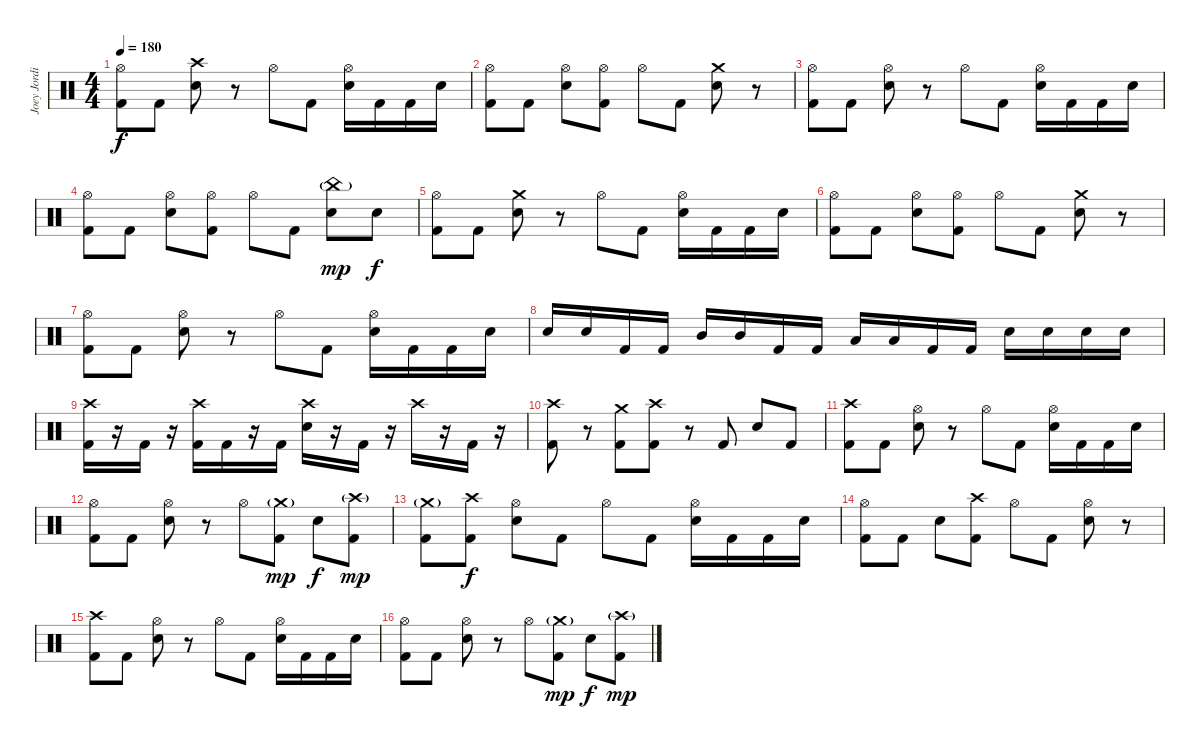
\track ("Joey Jordison" "Joey Jordi") {instrument percussion}
\staff {score}
\articulation defaults
\ts (4 4)
\tempo 180
\clef neutral
\ks c
("Hi-Hat (open)" "Kick (hit) 2").8{dy f} "Kick (hit) 2".8 ("Crash high (hit)" "Electric Snare (hit)").8 r.8 "Hi-Hat (open)".8 "Kick (hit) 2".8 ("Hi-Hat (open)" "Electric Snare (hit)").16 "Kick (hit) 2".16 "Kick (hit) 2".16 "Electric Snare (hit)".16 |
("Hi-Hat (open)" "Kick (hit) 2").8 "Kick (hit) 2".8 ("Hi-Hat (open)" "Electric Snare (hit)").8 ("Hi-Hat (open)" "Kick (hit) 2").8 "Hi-Hat (open)".8 "Kick (hit) 2".8 ("Crash medium (hit)" "Electric Snare (hit)").8 r.8 |
("Hi-Hat (open)" "Kick (hit) 2").8 "Kick (hit) 2".8 ("Hi-Hat (open)" "Electric Snare (hit)").8 r.8 "Hi-Hat (open)".8 "Kick (hit) 2".8 ("Hi-Hat (open)" "Electric Snare (hit)").16 "Kick (hit) 2".16 "Kick (hit) 2".16 "Electric Snare (hit)".16 |
("Hi-Hat (open)" "Kick (hit) 2").8 "Kick (hit) 2".8 ("Hi-Hat (open)" "Electric Snare (hit)").8 ("Hi-Hat (open)" "Kick (hit) 2").8 "Hi-Hat (open)".8 "Kick (hit) 2".8 ("China (hit)"{g} "Electric Snare (hit)").8{dy mp} "Electric Snare (hit)".8{dy f} |
("Hi-Hat (open)" "Kick (hit) 2").8 "Kick (hit) 2".8 ("Crash medium (hit)" "Electric Snare (hit)").8 r.8 "Hi-Hat (open)".8 "Kick (hit) 2".8 ("Hi-Hat (open)" "Electric Snare (hit)").16 "Kick (hit) 2".16 "Kick (hit) 2".16 "Electric Snare (hit)".16 |
("Hi-Hat (open)" "Kick (hit) 2").8 "Kick (hit) 2".8 ("Hi-Hat (open)" "Electric Snare (hit)").8 ("Hi-Hat (open)" "Kick (hit) 2").8 "Hi-Hat (open)".8 "Kick (hit) 2".8 ("Crash medium (hit)" "Electric Snare (hit)").8 r.8 |
("Hi-Hat (open)" "Kick (hit) 2").8 "Kick (hit) 2".8 ("Hi-Hat (open)" "Electric Snare (hit)").8 r.8 "Hi-Hat (open)".8 "Kick (hit) 2".8 ("Hi-Hat (open)" "Electric Snare (hit)").16 "Kick (hit) 2".16 "Kick (hit) 2".16 "Electric Snare (hit)".16 |
"Electric Snare (hit)".16 "Electric Snare (hit)".16 "Kick (hit) 2".16 "Kick (hit) 2".16 "Mid Tom (hit)".16 "Mid Tom (hit)".16 "Kick (hit) 2".16 "Kick (hit) 2".16 "Low Tom (hit)".16 "Low Tom (hit)".16 "Kick (hit) 2".16 "Kick (hit) 2".16 "Electric Snare (hit)".16 "Electric Snare (hit)".16 "Electric Snare (hit)".16 "Electric Snare (hit)".16 |
("Crash high (hit)" "Kick (hit) 2").16 r.16 "Kick (hit) 2".16 r.16 ("Crash high (hit)" "Kick (hit) 2").16 "Kick (hit) 2".16 r.16 "Kick (hit) 2".16 ("Crash high (hit)" "Electric Snare (hit)").16 r.16 "Kick (hit) 2".16 r.16 "Crash high (hit)".16 r.16 "Kick (hit) 2".16 r.16 |
("Crash high (hit)" "Kick (hit) 2").8 r.8 ("Crash medium (hit)" "Kick (hit) 2").8 ("Crash high (hit)" "Kick (hit) 2").8 r.8 "Kick (hit) 2".8 "Electric Snare (hit)".8 "Kick (hit) 2".8 |
("Crash high (hit)" "Kick (hit) 2").8 "Kick (hit) 2".8 ("Hi-Hat (open)" "Electric Snare (hit)").8 r.8 "Hi-Hat (open)".8 "Kick (hit) 2".8 ("Hi-Hat (open)" "Electric Snare (hit)").16 "Kick (hit) 2".16 "Kick (hit) 2".16 "Electric Snare (hit)".16 |
("Hi-Hat (open)" "Kick (hit) 2").8 "Kick (hit) 2".8 ("Hi-Hat (open)" "Electric Snare (hit)").8 r.8 "Hi-Hat (open)".8 ("Crash medium (hit)"{g} "Kick (hit) 2").8{dy mp} "Electric Snare (hit)".8{dy f} ("Crash high (hit)"{g} "Kick (hit) 2").8{dy mp} |
("Crash medium (hit)"{g} "Kick (hit) 2").8 ("Crash high (hit)" "Kick (hit) 2").8{dy f} ("Hi-Hat (open)" "Electric Snare (hit)").8 "Kick (hit) 2".8 "Hi-Hat (open)".8 "Kick (hit) 2".8 ("Hi-Hat (open)" "Electric Snare (hit)").16 "Kick (hit) 2".16 "Kick (hit) 2".16 "Electric Snare (hit)".16 |
("Hi-Hat (open)" "Kick (hit) 2").8 "Kick (hit) 2".8 "Electric Snare (hit)".8 ("Crash high (hit)" "Kick (hit) 2").8 "Hi-Hat (open)".8 "Kick (hit) 2".8 ("Hi-Hat (open)" "Electric Snare (hit)").8 r.8 |
("Crash high (hit)" "Kick (hit) 2").8 "Kick (hit) 2".8 ("Hi-Hat (open)" "Electric Snare (hit)").8 r.8 "Hi-Hat (open)".8 "Kick (hit) 2".8 ("Hi-Hat (open)" "Electric Snare (hit)").16 "Kick (hit) 2".16 "Kick (hit) 2".16 "Electric Snare (hit)".16 |
("Hi-Hat (open)" "Kick (hit) 2").8 "Kick (hit) 2".8 ("Hi-Hat (open)" "Electric Snare (hit)").8 r.8 "Hi-Hat (open)".8 ("Crash medium (hit)"{g} "Kick (hit) 2").8{dy mp} "Electric Snare (hit)".8{dy f} ("Crash high (hit)"{g} "Kick (hit) 2").8{dy mp}
